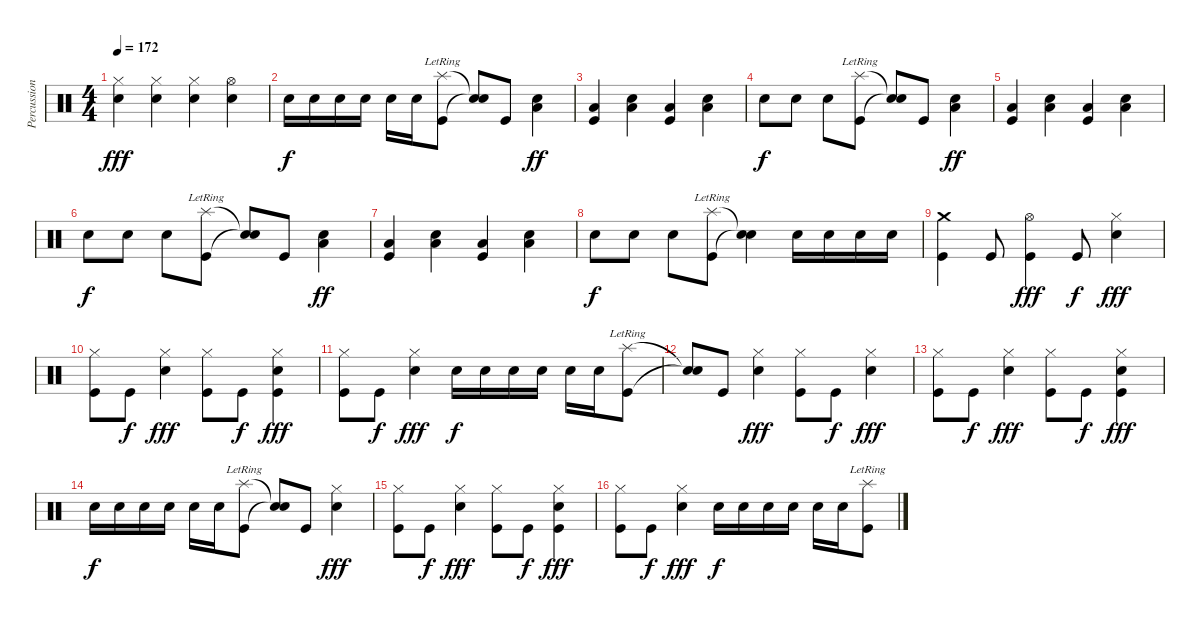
\track ("Percussions" "Percussion") {instrument percussion}
\staff {score}
\articulation defaults
\ts (4 4)
\tempo 172
\clef neutral
\ks c
("Hi-Hat (closed)" "Snare (hit) 2").4{dy fff} ("Hi-Hat (closed)" "Snare (hit) 2").4 ("Hi-Hat (closed)" "Snare (hit) 2").4 ("Hi-Hat (open)" "Snare (hit) 2").4 |
"Snare (hit) 2".16{dy f} "Snare (hit) 2".16 "Snare (hit) 2".16 "Snare (hit) 2".16 "Snare (hit) 2".16 "Snare (hit) 2".16 ("Splash (hit)"{lr} "Kick (hit)").8 ("Snare (hit)"{t} "Snare (hit)"{t}).8 "Kick (hit)".8 ("Snare (hit) 2" "Low Floor Tom (hit)").4{dy ff} |
("Low Floor Tom (hit)" "Kick (hit)").4 ("Snare (hit) 2" "Low Floor Tom (hit)").4 ("Low Floor Tom (hit)" "Kick (hit)").4 ("Snare (hit) 2" "Low Floor Tom (hit)").4 |
"Snare (hit) 2".8{dy f} "Snare (hit) 2".8 "Snare (hit) 2".8 ("Splash (hit)"{lr} "Kick (hit)").8 ("Snare (hit)"{t} "Snare (hit)"{t}).8 "Kick (hit)".8 ("Snare (hit) 2" "Low Floor Tom (hit)").4{dy ff} |
("Low Floor Tom (hit)" "Kick (hit)").4 ("Snare (hit) 2" "Low Floor Tom (hit)").4 ("Low Floor Tom (hit)" "Kick (hit)").4 ("Snare (hit) 2" "Low Floor Tom (hit)").4 |
"Snare (hit) 2".8{dy f} "Snare (hit) 2".8 "Snare (hit) 2".8 ("Splash (hit)"{lr} "Kick (hit)").8 ("Snare (hit)"{t} "Snare (hit)"{t}).8 "Kick (hit)".8 ("Snare (hit) 2" "Low Floor Tom (hit)").4{dy ff} |
("Low Floor Tom (hit)" "Kick (hit)").4 ("Snare (hit) 2" "Low Floor Tom (hit)").4 ("Low Floor Tom (hit)" "Kick (hit)").4 ("Snare (hit) 2" "Low Floor Tom (hit)").4 |
"Snare (hit) 2".8{dy f} "Snare (hit) 2".8 "Snare (hit) 2".8 ("Splash (hit)"{lr} "Kick (hit)").8 ("Snare (hit)"{t} "Snare (hit)"{t}).4 "Snare (hit) 2".16 "Snare (hit) 2".16 "Snare (hit) 2".16 "Snare (hit) 2".16 |
("Crash medium (hit)" "Kick (hit)").4 "Kick (hit)".8 ("Hi-Hat (open)" "Kick (hit)").4{dy fff} "Kick (hit)".8{dy f} ("Hi-Hat (closed)" "Snare (hit) 2").4{dy fff} |
("Hi-Hat (closed)" "Kick (hit)").8 "Kick (hit)".8{dy f} ("Hi-Hat (closed)" "Snare (hit) 2").4{dy fff} ("Hi-Hat (closed)" "Kick (hit)").8 "Kick (hit)".8{dy f} ("Hi-Hat (closed)" "Snare (hit) 2" "Kick (hit)").4{dy fff} |
("Hi-Hat (closed)" "Kick (hit)").8 "Kick (hit)".8{dy f} ("Hi-Hat (closed)" "Snare (hit) 2").4{dy fff} "Snare (hit) 2".16{dy f} "Snare (hit) 2".16 "Snare (hit) 2".16 "Snare (hit) 2".16 "Snare (hit) 2".16 "Snare (hit) 2".16 ("Splash (hit)"{lr} "Kick (hit)").8 |
("Snare (hit)"{t} "Snare (hit)"{t}).8 "Kick (hit)".8 ("Hi-Hat (closed)" "Snare (hit) 2").4{dy fff} ("Hi-Hat (closed)" "Kick (hit)").8 "Kick (hit)".8{dy f} ("Hi-Hat (closed)" "Snare (hit) 2").4{dy fff} |
("Hi-Hat (closed)" "Kick (hit)").8 "Kick (hit)".8{dy f} ("Hi-Hat (closed)" "Snare (hit) 2").4{dy fff} ("Hi-Hat (closed)" "Kick (hit)").8 "Kick (hit)".8{dy f} ("Hi-Hat (closed)" "Snare (hit) 2" "Kick (hit)").4{dy fff} |
"Snare (hit) 2".16{dy f} "Snare (hit) 2".16 "Snare (hit) 2".16 "Snare (hit) 2".16 "Snare (hit) 2".16 "Snare (hit) 2".16 ("Splash (hit)"{lr} "Kick (hit)").8 ("Snare (hit)"{t} "Snare (hit)"{t}).8 "Kick (hit)".8 ("Hi-Hat (closed)" "Snare (hit) 2").4{dy fff} |
("Hi-Hat (closed)" "Kick (hit)").8 "Kick (hit)".8{dy f} ("Hi-Hat (closed)" "Snare (hit) 2").4{dy fff} ("Hi-Hat (closed)" "Kick (hit)").8 "Kick (hit)".8{dy f} ("Hi-Hat (closed)" "Snare (hit) 2" "Kick (hit)").4{dy fff} |
("Hi-Hat (closed)" "Kick (hit)").8 "Kick (hit)".8{dy f} ("Hi-Hat (closed)" "Snare (hit) 2").4{dy fff} "Snare (hit) 2".16{dy f} "Snare (hit) 2".16 "Snare (hit) 2".16 "Snare (hit) 2".16 "Snare (hit) 2".16 "Snare (hit) 2".16 ("Splash (hit)"{lr} "Kick (hit)").8
